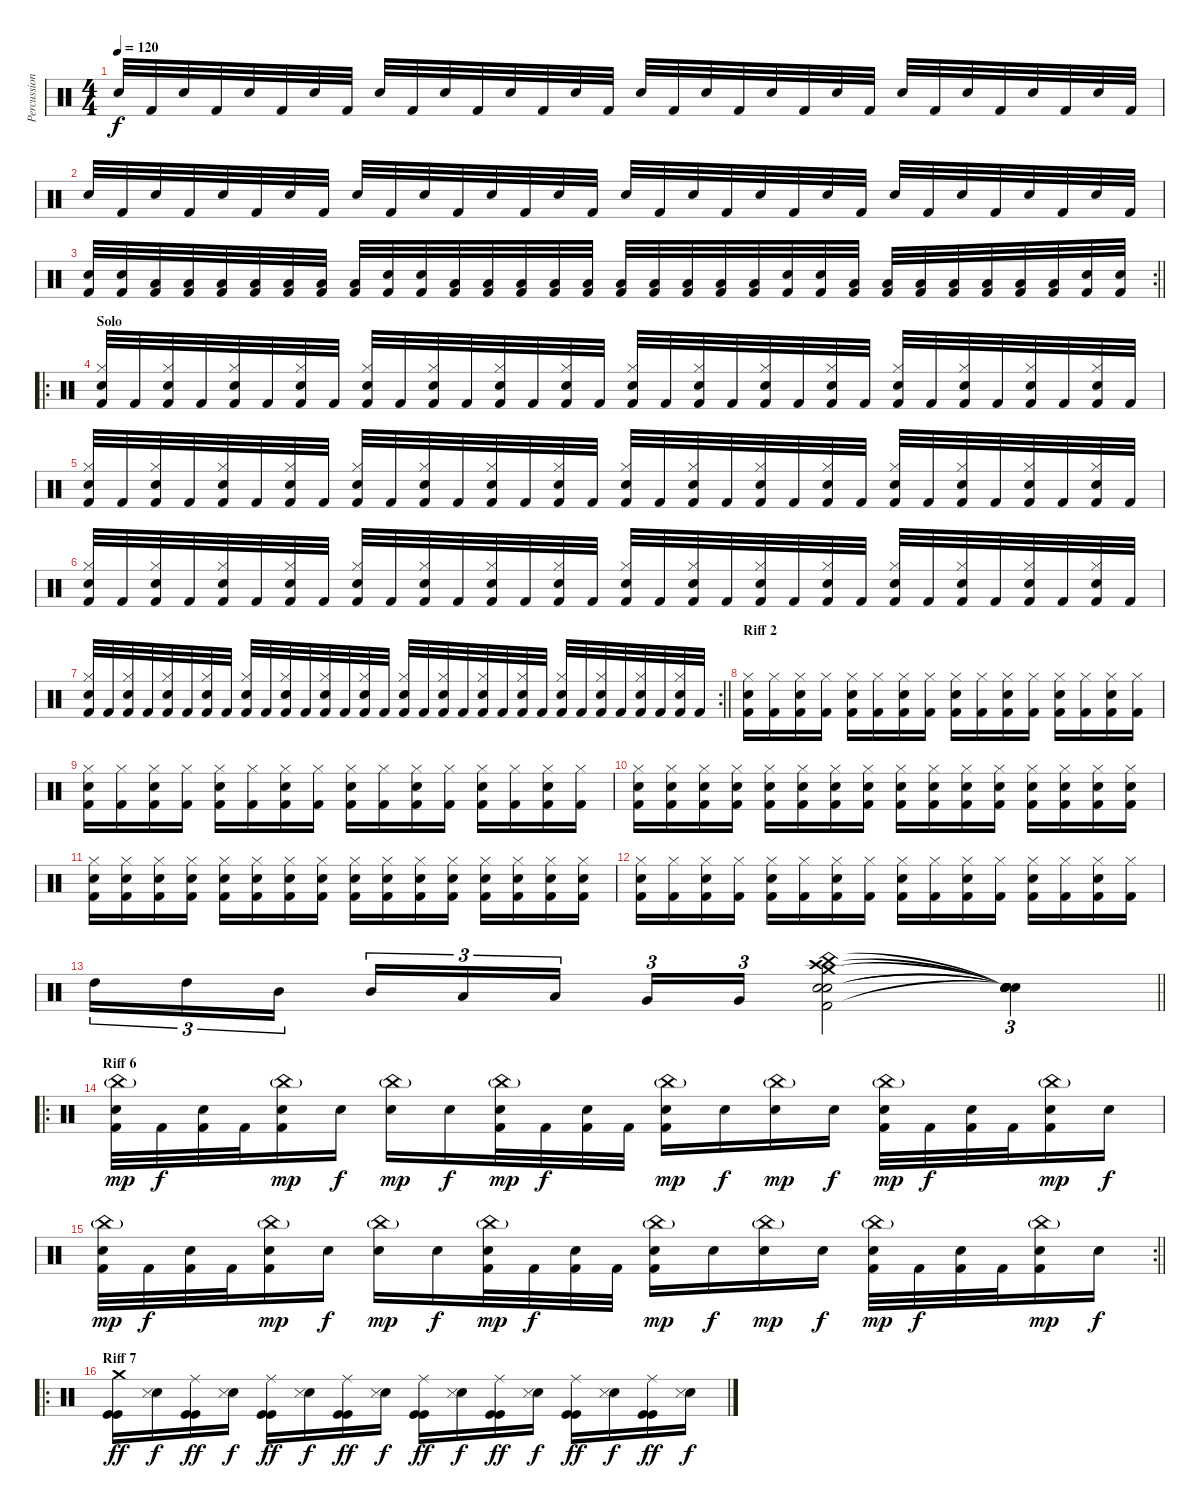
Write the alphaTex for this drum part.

\track ("Percussions" "Percussion") {instrument percussion}
\staff {score}
\articulation defaults
\ts (4 4)
\tempo 120
\clef neutral
\ks c "Electric Snare (hit)".32{dy f} "Kick (hit) 2".32 "Electric Snare (hit)".32 "Kick (hit) 2".32 "Electric Snare (hit)".32 "Kick (hit) 2".32 "Electric Snare (hit)".32 "Kick (hit) 2".32 "Electric Snare (hit)".32 "Kick (hit) 2".32 "Electric Snare (hit)".32 "Kick (hit) 2".32 "Electric Snare (hit)".32 "Kick (hit) 2".32 "Electric Snare (hit)".32 "Kick (hit) 2".32 "Electric Snare (hit)".32 "Kick (hit) 2".32 "Electric Snare (hit)".32 "Kick (hit) 2".32 "Electric Snare (hit)".32 "Kick (hit) 2".32 "Electric Snare (hit)".32 "Kick (hit) 2".32 "Electric Snare (hit)".32 "Kick (hit) 2".32 "Electric Snare (hit)".32 "Kick (hit) 2".32 "Electric Snare (hit)".32 "Kick (hit) 2".32 "Electric Snare (hit)".32 "Kick (hit) 2".32
|
"Electric Snare (hit)".32 "Kick (hit) 2".32 "Electric Snare (hit)".32 "Kick (hit) 2".32 "Electric Snare (hit)".32 "Kick (hit) 2".32 "Electric Snare (hit)".32 "Kick (hit) 2".32 "Electric Snare (hit)".32 "Kick (hit) 2".32 "Electric Snare (hit)".32 "Kick (hit) 2".32 "Electric Snare (hit)".32 "Kick (hit) 2".32 "Electric Snare (hit)".32 "Kick (hit) 2".32 "Electric Snare (hit)".32 "Kick (hit) 2".32 "Electric Snare (hit)".32 "Kick (hit) 2".32 "Electric Snare (hit)".32 "Kick (hit) 2".32 "Electric Snare (hit)".32 "Kick (hit) 2".32 "Electric Snare (hit)".32 "Kick (hit) 2".32 "Electric Snare (hit)".32 "Kick (hit) 2".32 "Electric Snare (hit)".32 "Kick (hit) 2".32 "Electric Snare (hit)".32 "Kick (hit) 2".32 |
\rc 2
\barLineRight lightlight
("Electric Snare (hit)" "Kick (hit) 2").32 ("Electric Snare (hit)" "Kick (hit) 2").32 ("Low Floor Tom (hit)" "Kick (hit) 2").32 ("Low Tom (hit)" "Kick (hit) 2").32 ("Low Tom (hit)" "Kick (hit) 2").32 ("Low Tom (hit)" "Kick (hit) 2").32 ("Low Tom (hit)" "Kick (hit) 2").32 ("Low Tom (hit)" "Kick (hit) 2").32 ("Low Tom (hit)" "Kick (hit) 2").32 ("Electric Snare (hit)" "Kick (hit) 2").32 ("Electric Snare (hit)" "Kick (hit) 2").32 ("Low Floor Tom (hit)" "Kick (hit) 2").32 ("Low Tom (hit)" "Kick (hit) 2").32 ("Low Tom (hit)" "Kick (hit) 2").32 ("Low Tom (hit)" "Kick (hit) 2").32 ("Low Tom (hit)" "Kick (hit) 2").32 ("Low Tom (hit)" "Kick (hit) 2").32 ("Low Tom (hit)" "Kick (hit) 2").32 ("Low Tom (hit)" "Kick (hit) 2").32 ("Low Tom (hit)" "Kick (hit) 2").32 ("Low Tom (hit)" "Kick (hit) 2").32 ("Electric Snare (hit)" "Kick (hit) 2").32 ("Electric Snare (hit)" "Kick (hit) 2").32 ("Low Floor Tom (hit)" "Kick (hit) 2").32 ("Low Tom (hit)" "Kick (hit) 2").32 ("Low Tom (hit)" "Kick (hit) 2").32 ("Low Tom (hit)" "Kick (hit) 2").32 ("Low Tom (hit)" "Kick (hit) 2").32 ("Low Tom (hit)" "Kick (hit) 2").32 ("Low Tom (hit)" "Kick (hit) 2").32 ("Electric Snare (hit)" "Kick (hit) 2").32 ("Electric Snare (hit)" "Kick (hit) 2").32 |
\ro
\section ("" "Solo")
("Hi-Hat (closed)" "Snare (hit) 2" "Kick (hit) 2").32 "Kick (hit) 2".32 ("Hi-Hat (closed)" "Snare (hit) 2" "Kick (hit) 2").32 "Kick (hit) 2".32 ("Hi-Hat (closed)" "Snare (hit) 2" "Kick (hit) 2").32 "Kick (hit) 2".32 ("Hi-Hat (closed)" "Snare (hit) 2" "Kick (hit) 2").32 "Kick (hit) 2".32 ("Hi-Hat (closed)" "Snare (hit) 2" "Kick (hit) 2").32 "Kick (hit) 2".32 ("Hi-Hat (closed)" "Snare (hit) 2" "Kick (hit) 2").32 "Kick (hit) 2".32 ("Hi-Hat (closed)" "Snare (hit) 2" "Kick (hit) 2").32 "Kick (hit) 2".32 ("Hi-Hat (closed)" "Snare (hit) 2" "Kick (hit) 2").32 "Kick (hit) 2".32 ("Hi-Hat (closed)" "Snare (hit) 2" "Kick (hit) 2").32 "Kick (hit) 2".32 ("Hi-Hat (closed)" "Snare (hit) 2" "Kick (hit) 2").32 "Kick (hit) 2".32 ("Hi-Hat (closed)" "Snare (hit) 2" "Kick (hit) 2").32 "Kick (hit) 2".32 ("Hi-Hat (closed)" "Snare (hit) 2" "Kick (hit) 2").32 "Kick (hit) 2".32 ("Hi-Hat (closed)" "Snare (hit) 2" "Kick (hit) 2").32 "Kick (hit) 2".32 ("Hi-Hat (closed)" "Snare (hit) 2" "Kick (hit) 2").32 "Kick (hit) 2".32 ("Hi-Hat (closed)" "Snare (hit) 2" "Kick (hit) 2").32 "Kick (hit) 2".32 ("Hi-Hat (closed)" "Snare (hit) 2" "Kick (hit) 2").32 "Kick (hit) 2".32 |
("Hi-Hat (closed)" "Snare (hit) 2" "Kick (hit) 2").32 "Kick (hit) 2".32 ("Hi-Hat (closed)" "Snare (hit) 2" "Kick (hit) 2").32 "Kick (hit) 2".32 ("Hi-Hat (closed)" "Snare (hit) 2" "Kick (hit) 2").32 "Kick (hit) 2".32 ("Hi-Hat (closed)" "Snare (hit) 2" "Kick (hit) 2").32 "Kick (hit) 2".32 ("Hi-Hat (closed)" "Snare (hit) 2" "Kick (hit) 2").32 "Kick (hit) 2".32 ("Hi-Hat (closed)" "Snare (hit) 2" "Kick (hit) 2").32 "Kick (hit) 2".32 ("Hi-Hat (closed)" "Snare (hit) 2" "Kick (hit) 2").32 "Kick (hit) 2".32 ("Hi-Hat (closed)" "Snare (hit) 2" "Kick (hit) 2").32 "Kick (hit) 2".32 ("Hi-Hat (closed)" "Snare (hit) 2" "Kick (hit) 2").32 "Kick (hit) 2".32 ("Hi-Hat (closed)" "Snare (hit) 2" "Kick (hit) 2").32 "Kick (hit) 2".32 ("Hi-Hat (closed)" "Snare (hit) 2" "Kick (hit) 2").32 "Kick (hit) 2".32 ("Hi-Hat (closed)" "Snare (hit) 2" "Kick (hit) 2").32 "Kick (hit) 2".32 ("Hi-Hat (closed)" "Snare (hit) 2" "Kick (hit) 2").32 "Kick (hit) 2".32 ("Hi-Hat (closed)" "Snare (hit) 2" "Kick (hit) 2").32 "Kick (hit) 2".32 ("Hi-Hat (closed)" "Snare (hit) 2" "Kick (hit) 2").32 "Kick (hit) 2".32 ("Hi-Hat (closed)" "Snare (hit) 2" "Kick (hit) 2").32 "Kick (hit) 2".32 |
("Hi-Hat (closed)" "Snare (hit) 2" "Kick (hit) 2").32 "Kick (hit) 2".32 ("Hi-Hat (closed)" "Snare (hit) 2" "Kick (hit) 2").32 "Kick (hit) 2".32 ("Hi-Hat (closed)" "Snare (hit) 2" "Kick (hit) 2").32 "Kick (hit) 2".32 ("Hi-Hat (closed)" "Snare (hit) 2" "Kick (hit) 2").32 "Kick (hit) 2".32 ("Hi-Hat (closed)" "Snare (hit) 2" "Kick (hit) 2").32 "Kick (hit) 2".32 ("Hi-Hat (closed)" "Snare (hit) 2" "Kick (hit) 2").32 "Kick (hit) 2".32 ("Hi-Hat (closed)" "Snare (hit) 2" "Kick (hit) 2").32 "Kick (hit) 2".32 ("Hi-Hat (closed)" "Snare (hit) 2" "Kick (hit) 2").32 "Kick (hit) 2".32 ("Hi-Hat (closed)" "Snare (hit) 2" "Kick (hit) 2").32 "Kick (hit) 2".32 ("Hi-Hat (closed)" "Snare (hit) 2" "Kick (hit) 2").32 "Kick (hit) 2".32 ("Hi-Hat (closed)" "Snare (hit) 2" "Kick (hit) 2").32 "Kick (hit) 2".32 ("Hi-Hat (closed)" "Snare (hit) 2" "Kick (hit) 2").32 "Kick (hit) 2".32 ("Hi-Hat (closed)" "Snare (hit) 2" "Kick (hit) 2").32 "Kick (hit) 2".32 ("Hi-Hat (closed)" "Snare (hit) 2" "Kick (hit) 2").32 "Kick (hit) 2".32 ("Hi-Hat (closed)" "Snare (hit) 2" "Kick (hit) 2").32 "Kick (hit) 2".32 ("Hi-Hat (closed)" "Snare (hit) 2" "Kick (hit) 2").32 "Kick (hit) 2".32 |
\rc 2
\barLineRight lightlight
("Hi-Hat (closed)" "Snare (hit) 2" "Kick (hit) 2").32 "Kick (hit) 2".32 ("Hi-Hat (closed)" "Snare (hit) 2" "Kick (hit) 2").32 "Kick (hit) 2".32 ("Hi-Hat (closed)" "Snare (hit) 2" "Kick (hit) 2").32 "Kick (hit) 2".32 ("Hi-Hat (closed)" "Snare (hit) 2" "Kick (hit) 2").32 "Kick (hit) 2".32 ("Hi-Hat (closed)" "Snare (hit) 2" "Kick (hit) 2").32 "Kick (hit) 2".32 ("Hi-Hat (closed)" "Snare (hit) 2" "Kick (hit) 2").32 "Kick (hit) 2".32 ("Hi-Hat (closed)" "Snare (hit) 2" "Kick (hit) 2").32 "Kick (hit) 2".32 ("Hi-Hat (closed)" "Snare (hit) 2" "Kick (hit) 2").32 "Kick (hit) 2".32 ("Hi-Hat (closed)" "Snare (hit) 2" "Kick (hit) 2").32 "Kick (hit) 2".32 ("Hi-Hat (closed)" "Snare (hit) 2" "Kick (hit) 2").32 "Kick (hit) 2".32 ("Hi-Hat (closed)" "Snare (hit) 2" "Kick (hit) 2").32 "Kick (hit) 2".32 ("Hi-Hat (closed)" "Snare (hit) 2" "Kick (hit) 2").32 "Kick (hit) 2".32 ("Hi-Hat (closed)" "Snare (hit) 2" "Kick (hit) 2").32 "Kick (hit) 2".32 ("Hi-Hat (closed)" "Snare (hit) 2" "Kick (hit) 2").32 "Kick (hit) 2".32 ("Hi-Hat (closed)" "Snare (hit) 2" "Kick (hit) 2").32 "Kick (hit) 2".32 ("Hi-Hat (closed)" "Snare (hit) 2" "Kick (hit) 2").32 "Kick (hit) 2".32 |
\section ("" "Riff 2")
("Kick (hit) 2" "Electric Snare (hit)" "Hi-Hat (closed)").16 ("Kick (hit) 2" "Hi-Hat (closed)").16 ("Kick (hit) 2" "Electric Snare (hit)" "Hi-Hat (closed)").16 ("Kick (hit) 2" "Hi-Hat (closed)").16 ("Kick (hit) 2" "Electric Snare (hit)" "Hi-Hat (closed)").16 ("Kick (hit) 2" "Hi-Hat (closed)").16 ("Kick (hit) 2" "Electric Snare (hit)" "Hi-Hat (closed)").16 ("Kick (hit) 2" "Hi-Hat (closed)").16 ("Kick (hit) 2" "Electric Snare (hit)" "Hi-Hat (closed)").16 ("Kick (hit) 2" "Hi-Hat (closed)").16 ("Kick (hit) 2" "Electric Snare (hit)" "Hi-Hat (closed)").16 ("Kick (hit) 2" "Hi-Hat (closed)").16 ("Kick (hit) 2" "Electric Snare (hit)" "Hi-Hat (closed)").16 ("Kick (hit) 2" "Hi-Hat (closed)").16 ("Kick (hit) 2" "Electric Snare (hit)" "Hi-Hat (closed)").16 ("Kick (hit) 2" "Hi-Hat (closed)").16 |
("Kick (hit) 2" "Electric Snare (hit)" "Hi-Hat (closed)").16 ("Kick (hit) 2" "Hi-Hat (closed)").16 ("Kick (hit) 2" "Electric Snare (hit)" "Hi-Hat (closed)").16 ("Kick (hit) 2" "Hi-Hat (closed)").16 ("Kick (hit) 2" "Electric Snare (hit)" "Hi-Hat (closed)").16 ("Kick (hit) 2" "Hi-Hat (closed)").16 ("Kick (hit) 2" "Electric Snare (hit)" "Hi-Hat (closed)").16 ("Kick (hit) 2" "Hi-Hat (closed)").16 ("Kick (hit) 2" "Electric Snare (hit)" "Hi-Hat (closed)").16 ("Kick (hit) 2" "Hi-Hat (closed)").16 ("Kick (hit) 2" "Electric Snare (hit)" "Hi-Hat (closed)").16 ("Kick (hit) 2" "Hi-Hat (closed)").16 ("Kick (hit) 2" "Electric Snare (hit)" "Hi-Hat (closed)").16 ("Kick (hit) 2" "Hi-Hat (closed)").16 ("Kick (hit) 2" "Electric Snare (hit)" "Hi-Hat (closed)").16 ("Kick (hit) 2" "Hi-Hat (closed)").16 |
("Kick (hit) 2" "Electric Snare (hit)" "Hi-Hat (closed)").16 ("Kick (hit) 2" "Electric Snare (hit)" "Hi-Hat (closed)").16 ("Kick (hit) 2" "Electric Snare (hit)" "Hi-Hat (closed)").16 ("Kick (hit) 2" "Electric Snare (hit)" "Hi-Hat (closed)").16 ("Kick (hit) 2" "Electric Snare (hit)" "Hi-Hat (closed)").16 ("Kick (hit) 2" "Electric Snare (hit)" "Hi-Hat (closed)").16 ("Kick (hit) 2" "Electric Snare (hit)" "Hi-Hat (closed)").16 ("Kick (hit) 2" "Electric Snare (hit)" "Hi-Hat (closed)").16 ("Kick (hit) 2" "Electric Snare (hit)" "Hi-Hat (closed)").16 ("Kick (hit) 2" "Electric Snare (hit)" "Hi-Hat (closed)").16 ("Kick (hit) 2" "Electric Snare (hit)" "Hi-Hat (closed)").16 ("Kick (hit) 2" "Electric Snare (hit)" "Hi-Hat (closed)").16 ("Kick (hit) 2" "Electric Snare (hit)" "Hi-Hat (closed)").16 ("Kick (hit) 2" "Electric Snare (hit)" "Hi-Hat (closed)").16 ("Kick (hit) 2" "Electric Snare (hit)" "Hi-Hat (closed)").16 ("Kick (hit) 2" "Electric Snare (hit)" "Hi-Hat (closed)").16 |
("Kick (hit) 2" "Electric Snare (hit)" "Hi-Hat (closed)").16 ("Kick (hit) 2" "Electric Snare (hit)" "Hi-Hat (closed)").16 ("Kick (hit) 2" "Electric Snare (hit)" "Hi-Hat (closed)").16 ("Kick (hit) 2" "Electric Snare (hit)" "Hi-Hat (closed)").16 ("Kick (hit) 2" "Electric Snare (hit)" "Hi-Hat (closed)").16 ("Kick (hit) 2" "Electric Snare (hit)" "Hi-Hat (closed)").16 ("Kick (hit) 2" "Electric Snare (hit)" "Hi-Hat (closed)").16 ("Kick (hit) 2" "Electric Snare (hit)" "Hi-Hat (closed)").16 ("Kick (hit) 2" "Electric Snare (hit)" "Hi-Hat (closed)").16 ("Kick (hit) 2" "Electric Snare (hit)" "Hi-Hat (closed)").16 ("Kick (hit) 2" "Electric Snare (hit)" "Hi-Hat (closed)").16 ("Kick (hit) 2" "Electric Snare (hit)" "Hi-Hat (closed)").16 ("Kick (hit) 2" "Electric Snare (hit)" "Hi-Hat (closed)").16 ("Kick (hit) 2" "Electric Snare (hit)" "Hi-Hat (closed)").16 ("Kick (hit) 2" "Electric Snare (hit)" "Hi-Hat (closed)").16 ("Kick (hit) 2" "Electric Snare (hit)" "Hi-Hat (closed)").16 |
("Kick (hit) 2" "Electric Snare (hit)" "Hi-Hat (closed)").16 ("Kick (hit) 2" "Hi-Hat (closed)").16 ("Kick (hit) 2" "Electric Snare (hit)" "Hi-Hat (closed)").16 ("Kick (hit) 2" "Hi-Hat (closed)").16 ("Kick (hit) 2" "Electric Snare (hit)" "Hi-Hat (closed)").16 ("Kick (hit) 2" "Hi-Hat (closed)").16 ("Kick (hit) 2" "Electric Snare (hit)" "Hi-Hat (closed)").16 ("Kick (hit) 2" "Hi-Hat (closed)").16 ("Kick (hit) 2" "Electric Snare (hit)" "Hi-Hat (closed)").16 ("Kick (hit) 2" "Hi-Hat (closed)").16 ("Kick (hit) 2" "Electric Snare (hit)" "Hi-Hat (closed)").16 ("Kick (hit) 2" "Hi-Hat (closed)").16 ("Kick (hit) 2" "Electric Snare (hit)" "Hi-Hat (closed)").16 ("Kick (hit) 2" "Hi-Hat (closed)").16 ("Kick (hit) 2" "Electric Snare (hit)" "Hi-Hat (closed)").16 ("Kick (hit) 2" "Hi-Hat (closed)").16 |
\barLineRight lightlight "High Tom (hit)".16{tu (3 2)} "High Tom (hit)".16{tu (3 2)} "Mid Tom (hit)".16{tu (3 2) beam splitsecondary} "Mid Tom (hit)".16{tu (3 2)} "Low Tom (hit)".16{tu (3 2)} "Low Tom (hit)".16{tu (3 2)} "Very Low Tom (hit)".16{tu (3 2)} "Very Low Tom (hit)".16{tu (3 2)}
("Crash high (hit)" "Crash medium (hit)" "China (hit)" "Electric Snare (hit)" "Electric Snare (hit)" "Kick (hit) 2").2 ("Snare (hit)"{t} "Snare (hit)"{t} "Snare (hit)"{t} "Snare (hit)"{t} "Snare (hit)"{t} "Snare (hit)"{t}).4{tu (3 2)} |
\ro
\section ("" "Riff 6")
("China (hit)"{g} "Electric Snare (hit)" "Kick (hit) 2").32{dy mp} "Kick (hit) 2".32{dy f} ("Electric Snare (hit)" "Kick (hit) 2").32 "Kick (hit) 2".32 ("China (hit)"{g} "Electric Snare (hit)" "Kick (hit) 2").16{dy mp} "Electric Snare (hit)".16{dy f} ("China (hit)"{g} "Electric Snare (hit)").16{dy mp} "Electric Snare (hit)".16{dy f} ("China (hit)"{g} "Electric Snare (hit)" "Kick (hit) 2").32{dy mp} "Kick (hit) 2".32{dy f} ("Electric Snare (hit)" "Kick (hit) 2").32 "Kick (hit) 2".32 ("China (hit)"{g} "Electric Snare (hit)" "Kick (hit) 2").16{dy mp} "Electric Snare (hit)".16{dy f} ("China (hit)"{g} "Electric Snare (hit)").16{dy mp} "Electric Snare (hit)".16{dy f} ("China (hit)"{g} "Electric Snare (hit)" "Kick (hit) 2").32{dy mp} "Kick (hit) 2".32{dy f} ("Electric Snare (hit)" "Kick (hit) 2").32 "Kick (hit) 2".32 ("China (hit)"{g} "Electric Snare (hit)" "Kick (hit) 2").16{dy mp} "Electric Snare (hit)".16{dy f} |
\rc 2
\barLineRight lightlight
("China (hit)"{g} "Electric Snare (hit)" "Kick (hit) 2").32{dy mp} "Kick (hit) 2".32{dy f} ("Electric Snare (hit)" "Kick (hit) 2").32 "Kick (hit) 2".32 ("China (hit)"{g} "Electric Snare (hit)" "Kick (hit) 2").16{dy mp} "Electric Snare (hit)".16{dy f} ("China (hit)"{g} "Electric Snare (hit)").16{dy mp} "Electric Snare (hit)".16{dy f} ("China (hit)"{g} "Electric Snare (hit)" "Kick (hit) 2").32{dy mp} "Kick (hit) 2".32{dy f} ("Electric Snare (hit)" "Kick (hit) 2").32 "Kick (hit) 2".32 ("China (hit)"{g} "Electric Snare (hit)" "Kick (hit) 2").16{dy mp} "Electric Snare (hit)".16{dy f} ("China (hit)"{g} "Electric Snare (hit)").16{dy mp} "Electric Snare (hit)".16{dy f} ("China (hit)"{g} "Electric Snare (hit)" "Kick (hit) 2").32{dy mp} "Kick (hit) 2".32{dy f} ("Electric Snare (hit)" "Kick (hit) 2").32 "Kick (hit) 2".32 ("China (hit)"{g} "Electric Snare (hit)" "Kick (hit) 2").16{dy mp} "Electric Snare (hit)".16{dy f} |
\ro
\section ("" "Riff 7")
("Crash medium (hit)" "Kick (hit)" "Kick (hit)").16{dy ff} ("Electric Snare (hit)" "Snare (side stick) 3").16{dy f} ("Ride (middle)" "Kick (hit)" "Kick (hit)").16{dy ff} ("Electric Snare (hit)" "Snare (side stick) 3").16{dy f} ("Ride (middle)" "Kick (hit)" "Kick (hit)").16{dy ff} ("Electric Snare (hit)" "Snare (side stick) 3").16{dy f} ("Ride (middle)" "Kick (hit)" "Kick (hit)").16{dy ff} ("Electric Snare (hit)" "Snare (side stick) 3").16{dy f} ("Ride (middle)" "Kick (hit)" "Kick (hit)").16{dy ff} ("Electric Snare (hit)" "Snare (side stick) 3").16{dy f} ("Ride (middle)" "Kick (hit)" "Kick (hit)").16{dy ff} ("Electric Snare (hit)" "Snare (side stick) 3").16{dy f} ("Ride (middle)" "Kick (hit)" "Kick (hit)").16{dy ff} ("Electric Snare (hit)" "Snare (side stick) 3").16{dy f} ("Ride (middle)" "Kick (hit)" "Kick (hit)").16{dy ff} ("Electric Snare (hit)" "Snare (side stick) 3").16{dy f}
